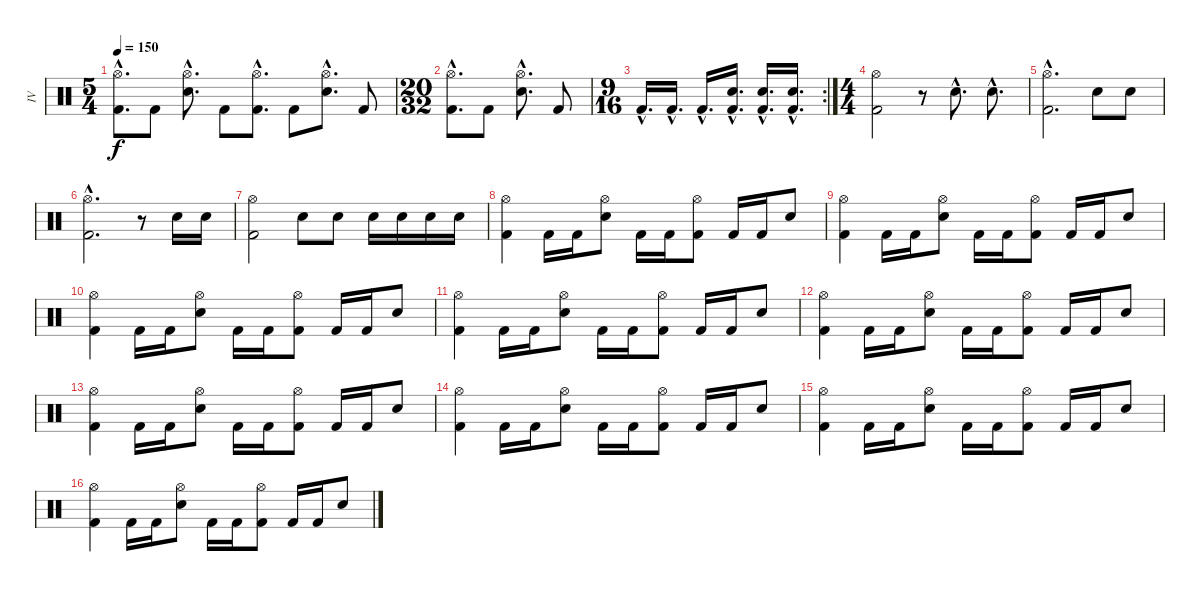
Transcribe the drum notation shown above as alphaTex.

\track ("IV" "IV") {instrument percussion}
\staff {score}
\articulation defaults
\ts (5 4)
\tempo 150
\clef neutral
\ks c
("Hi-Hat (open)"{hac} "Kick (hit) 2"{hac}).8{d dy f} "Kick (hit) 2".8 ("Hi-Hat (open)"{hac} "Snare (hit) 2"{hac}).8{d} "Kick (hit) 2".8 ("Hi-Hat (open)"{hac} "Kick (hit) 2"{hac}).8{d} "Kick (hit) 2".8 ("Hi-Hat (open)"{hac} "Snare (hit) 2"{hac}).8{d} "Kick (hit) 2".8 |
\ts (20 32)
("Hi-Hat (open)"{hac} "Kick (hit) 2"{hac}).8{d} "Kick (hit) 2".8 ("Hi-Hat (open)"{hac} "Snare (hit) 2"{hac}).8{d} "Kick (hit) 2".8 |
\rc 2
\ts (9 16)
"Kick (hit) 2"{hac}.16{d} "Kick (hit) 2"{hac}.16{d} "Kick (hit) 2"{hac}.16{d} ("Snare (hit) 2"{hac} "Kick (hit) 2"{hac}).16{d} ("Snare (hit) 2"{hac} "Kick (hit) 2"{hac}).16{d} ("Snare (hit) 2"{hac} "Kick (hit) 2"{hac}).16{d} |
\ts (4 4)
("Hi-Hat (open)" "Kick (hit) 2").2 r.8 "Snare (hit) 2"{hac}.8{d} "Snare (hit) 2"{hac}.8{d} |
("Hi-Hat (open)"{hac} "Kick (hit) 2"{hac}).2{d} "Snare (hit) 2".8 "Snare (hit) 2".8 |
("Hi-Hat (open)"{hac} "Kick (hit) 2"{hac}).2{d} r.8 "Snare (hit) 2".16 "Snare (hit) 2".16 |
("Hi-Hat (open)" "Kick (hit) 2").2 "Snare (hit) 2".8 "Snare (hit) 2".8 "Snare (hit) 2".16 "Snare (hit) 2".16 "Snare (hit) 2".16 "Snare (hit) 2".16 |
("Hi-Hat (open)" "Kick (hit) 2").4 "Kick (hit) 2".16 "Kick (hit) 2".16 ("Hi-Hat (open)" "Snare (hit) 2").8 "Kick (hit) 2".16 "Kick (hit) 2".16 ("Hi-Hat (open)" "Kick (hit) 2").8 "Kick (hit) 2".16 "Kick (hit) 2".16 "Snare (hit) 2".8 |
("Hi-Hat (open)" "Kick (hit) 2").4 "Kick (hit) 2".16 "Kick (hit) 2".16 ("Hi-Hat (open)" "Snare (hit) 2").8 "Kick (hit) 2".16 "Kick (hit) 2".16 ("Hi-Hat (open)" "Kick (hit) 2").8 "Kick (hit) 2".16 "Kick (hit) 2".16 "Snare (hit) 2".8 |
("Hi-Hat (open)" "Kick (hit) 2").4 "Kick (hit) 2".16 "Kick (hit) 2".16 ("Hi-Hat (open)" "Snare (hit) 2").8 "Kick (hit) 2".16 "Kick (hit) 2".16 ("Hi-Hat (open)" "Kick (hit) 2").8 "Kick (hit) 2".16 "Kick (hit) 2".16 "Snare (hit) 2".8 |
("Hi-Hat (open)" "Kick (hit) 2").4 "Kick (hit) 2".16 "Kick (hit) 2".16 ("Hi-Hat (open)" "Snare (hit) 2").8 "Kick (hit) 2".16 "Kick (hit) 2".16 ("Hi-Hat (open)" "Kick (hit) 2").8 "Kick (hit) 2".16 "Kick (hit) 2".16 "Snare (hit) 2".8 |
("Hi-Hat (open)" "Kick (hit) 2").4 "Kick (hit) 2".16 "Kick (hit) 2".16 ("Hi-Hat (open)" "Snare (hit) 2").8 "Kick (hit) 2".16 "Kick (hit) 2".16 ("Hi-Hat (open)" "Kick (hit) 2").8 "Kick (hit) 2".16 "Kick (hit) 2".16 "Snare (hit) 2".8 |
("Hi-Hat (open)" "Kick (hit) 2").4 "Kick (hit) 2".16 "Kick (hit) 2".16 ("Hi-Hat (open)" "Snare (hit) 2").8 "Kick (hit) 2".16 "Kick (hit) 2".16 ("Hi-Hat (open)" "Kick (hit) 2").8 "Kick (hit) 2".16 "Kick (hit) 2".16 "Snare (hit) 2".8 |
("Hi-Hat (open)" "Kick (hit) 2").4 "Kick (hit) 2".16 "Kick (hit) 2".16 ("Hi-Hat (open)" "Snare (hit) 2").8 "Kick (hit) 2".16 "Kick (hit) 2".16 ("Hi-Hat (open)" "Kick (hit) 2").8 "Kick (hit) 2".16 "Kick (hit) 2".16 "Snare (hit) 2".8 |
("Hi-Hat (open)" "Kick (hit) 2").4 "Kick (hit) 2".16 "Kick (hit) 2".16 ("Hi-Hat (open)" "Snare (hit) 2").8 "Kick (hit) 2".16 "Kick (hit) 2".16 ("Hi-Hat (open)" "Kick (hit) 2").8 "Kick (hit) 2".16 "Kick (hit) 2".16 "Snare (hit) 2".8 |
("Hi-Hat (open)" "Kick (hit) 2").4 "Kick (hit) 2".16 "Kick (hit) 2".16 ("Hi-Hat (open)" "Snare (hit) 2").8 "Kick (hit) 2".16 "Kick (hit) 2".16 ("Hi-Hat (open)" "Kick (hit) 2").8 "Kick (hit) 2".16 "Kick (hit) 2".16 "Snare (hit) 2".8
